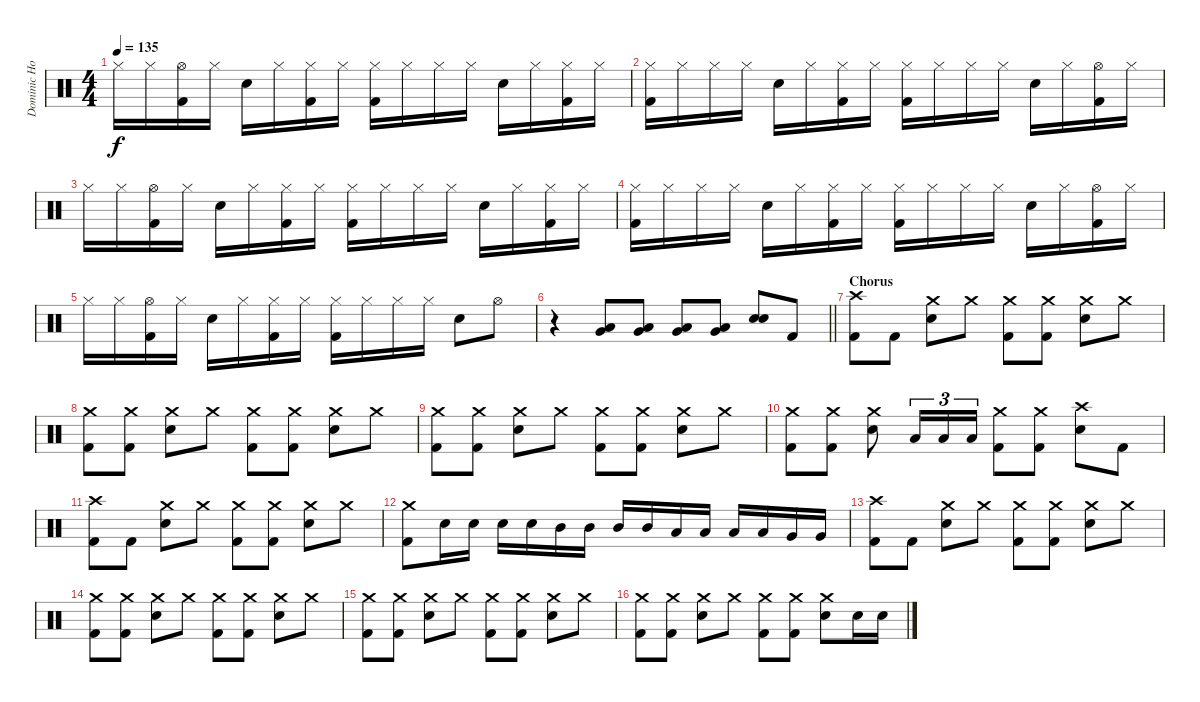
\track ("Dominic Howard (Drums)" "Dominic Ho") {instrument percussion}
\staff {score}
\articulation defaults
\ts (4 4)
\tempo 135
\clef neutral
\ks c "Hi-Hat (closed)".16{dy f} "Hi-Hat (closed)".16
("Hi-Hat (open)" "Kick (hit) 2").16 "Hi-Hat (closed)".16 "Electric Snare (hit)".16 "Hi-Hat (closed)".16 ("Hi-Hat (closed)" "Kick (hit) 2").16 "Hi-Hat (closed)".16 ("Hi-Hat (closed)" "Kick (hit) 2").16 "Hi-Hat (closed)".16 "Hi-Hat (closed)".16 "Hi-Hat (closed)".16 "Electric Snare (hit)".16 "Hi-Hat (closed)".16 ("Hi-Hat (closed)" "Kick (hit) 2").16 "Hi-Hat (closed)".16 |
("Hi-Hat (closed)" "Kick (hit) 2").16 "Hi-Hat (closed)".16 "Hi-Hat (closed)".16 "Hi-Hat (closed)".16 "Electric Snare (hit)".16 "Hi-Hat (closed)".16 ("Hi-Hat (closed)" "Kick (hit) 2").16 "Hi-Hat (closed)".16 ("Hi-Hat (closed)" "Kick (hit) 2").16 "Hi-Hat (closed)".16 "Hi-Hat (closed)".16 "Hi-Hat (closed)".16 "Electric Snare (hit)".16 "Hi-Hat (closed)".16 ("Hi-Hat (open)" "Kick (hit) 2").16 "Hi-Hat (closed)".16 |
"Hi-Hat (closed)".16 "Hi-Hat (closed)".16 ("Hi-Hat (open)" "Kick (hit) 2").16 "Hi-Hat (closed)".16 "Electric Snare (hit)".16 "Hi-Hat (closed)".16 ("Hi-Hat (closed)" "Kick (hit) 2").16 "Hi-Hat (closed)".16 ("Hi-Hat (closed)" "Kick (hit) 2").16 "Hi-Hat (closed)".16 "Hi-Hat (closed)".16 "Hi-Hat (closed)".16 "Electric Snare (hit)".16 "Hi-Hat (closed)".16 ("Hi-Hat (closed)" "Kick (hit) 2").16 "Hi-Hat (closed)".16 |
("Hi-Hat (closed)" "Kick (hit) 2").16 "Hi-Hat (closed)".16 "Hi-Hat (closed)".16 "Hi-Hat (closed)".16 "Electric Snare (hit)".16 "Hi-Hat (closed)".16 ("Hi-Hat (closed)" "Kick (hit) 2").16 "Hi-Hat (closed)".16 ("Hi-Hat (closed)" "Kick (hit) 2").16 "Hi-Hat (closed)".16 "Hi-Hat (closed)".16 "Hi-Hat (closed)".16 "Electric Snare (hit)".16 "Hi-Hat (closed)".16 ("Hi-Hat (open)" "Kick (hit) 2").16 "Hi-Hat (closed)".16 |
"Hi-Hat (closed)".16 "Hi-Hat (closed)".16 ("Hi-Hat (open)" "Kick (hit) 2").16 "Hi-Hat (closed)".16 "Electric Snare (hit)".16 "Hi-Hat (closed)".16 ("Hi-Hat (closed)" "Kick (hit) 2").16 "Hi-Hat (closed)".16 ("Hi-Hat (closed)" "Kick (hit) 2").16 "Hi-Hat (closed)".16 "Hi-Hat (closed)".16 "Hi-Hat (closed)".16 "Electric Snare (hit)".8 "Hi-Hat (open)".8 |
\barLineRight lightlight
r.4 ("Very Low Tom (hit)" "Low Tom (hit)").8 ("Very Low Tom (hit)" "Low Tom (hit)").8 ("Very Low Tom (hit)" "Low Tom (hit)").8 ("Very Low Tom (hit)" "Low Tom (hit)").8 ("Electric Snare (hit)" "Electric Snare (hit)").8 "Kick (hit) 2".8 |
\section ("" "Chorus")
("Crash high (hit)" "Kick (hit) 2").8 "Kick (hit) 2".8 ("Crash medium (hit)" "Electric Snare (hit)").8 "Crash medium (hit)".8 ("Crash medium (hit)" "Kick (hit) 2").8 ("Crash medium (hit)" "Kick (hit) 2").8 ("Crash medium (hit)" "Electric Snare (hit)").8 "Crash medium (hit)".8 |
("Crash medium (hit)" "Kick (hit) 2").8 ("Crash medium (hit)" "Kick (hit) 2").8 ("Crash medium (hit)" "Electric Snare (hit)").8 "Crash medium (hit)".8 ("Crash medium (hit)" "Kick (hit) 2").8 ("Crash medium (hit)" "Kick (hit) 2").8 ("Crash medium (hit)" "Electric Snare (hit)").8 "Crash medium (hit)".8 |
("Crash medium (hit)" "Kick (hit) 2").8 ("Crash medium (hit)" "Kick (hit) 2").8 ("Crash medium (hit)" "Electric Snare (hit)").8 "Crash medium (hit)".8 ("Crash medium (hit)" "Kick (hit) 2").8 ("Crash medium (hit)" "Kick (hit) 2").8 ("Crash medium (hit)" "Electric Snare (hit)").8 "Crash medium (hit)".8 |
("Crash medium (hit)" "Kick (hit) 2").8 ("Crash medium (hit)" "Kick (hit) 2").8 ("Crash medium (hit)" "Electric Snare (hit)").8 "Low Tom (hit)".16{tu (3 2)} "Low Tom (hit)".16{tu (3 2)} "Low Tom (hit)".16{tu (3 2)} ("Crash medium (hit)" "Kick (hit) 2").8 ("Crash medium (hit)" "Kick (hit) 2").8 ("Crash high (hit)" "Electric Snare (hit)").8 "Kick (hit) 2".8 |
("Crash high (hit)" "Kick (hit) 2").8 "Kick (hit) 2".8 ("Crash medium (hit)" "Electric Snare (hit)").8 "Crash medium (hit)".8 ("Crash medium (hit)" "Kick (hit) 2").8 ("Crash medium (hit)" "Kick (hit) 2").8 ("Crash medium (hit)" "Electric Snare (hit)").8 "Crash medium (hit)".8 |
("Crash medium (hit)" "Kick (hit) 2").8 "Electric Snare (hit)".16 "Electric Snare (hit)".16 "Electric Snare (hit)".16 "Electric Snare (hit)".16 "Mid Tom (hit)".16 "Mid Tom (hit)".16 "Mid Tom (hit)".16 "Mid Tom (hit)".16 "Low Tom (hit)".16 "Low Tom (hit)".16 "Low Tom (hit)".16 "Low Tom (hit)".16 "Very Low Tom (hit)".16 "Very Low Tom (hit)".16 |
("Crash high (hit)" "Kick (hit) 2").8 "Kick (hit) 2".8 ("Crash medium (hit)" "Electric Snare (hit)").8 "Crash medium (hit)".8 ("Crash medium (hit)" "Kick (hit) 2").8 ("Crash medium (hit)" "Kick (hit) 2").8 ("Crash medium (hit)" "Electric Snare (hit)").8 "Crash medium (hit)".8 |
("Crash medium (hit)" "Kick (hit) 2").8 ("Crash medium (hit)" "Kick (hit) 2").8 ("Crash medium (hit)" "Electric Snare (hit)").8 "Crash medium (hit)".8 ("Crash medium (hit)" "Kick (hit) 2").8 ("Crash medium (hit)" "Kick (hit) 2").8 ("Crash medium (hit)" "Electric Snare (hit)").8 "Crash medium (hit)".8 |
("Crash medium (hit)" "Kick (hit) 2").8 ("Crash medium (hit)" "Kick (hit) 2").8 ("Crash medium (hit)" "Electric Snare (hit)").8 "Crash medium (hit)".8 ("Crash medium (hit)" "Kick (hit) 2").8 ("Crash medium (hit)" "Kick (hit) 2").8 ("Crash medium (hit)" "Electric Snare (hit)").8 "Crash medium (hit)".8 |
("Crash medium (hit)" "Kick (hit) 2").8 ("Crash medium (hit)" "Kick (hit) 2").8 ("Crash medium (hit)" "Electric Snare (hit)").8 "Crash medium (hit)".8 ("Crash medium (hit)" "Kick (hit) 2").8 ("Crash medium (hit)" "Kick (hit) 2").8 ("Crash medium (hit)" "Electric Snare (hit)").8 "Electric Snare (hit)".16 "Electric Snare (hit)".16
